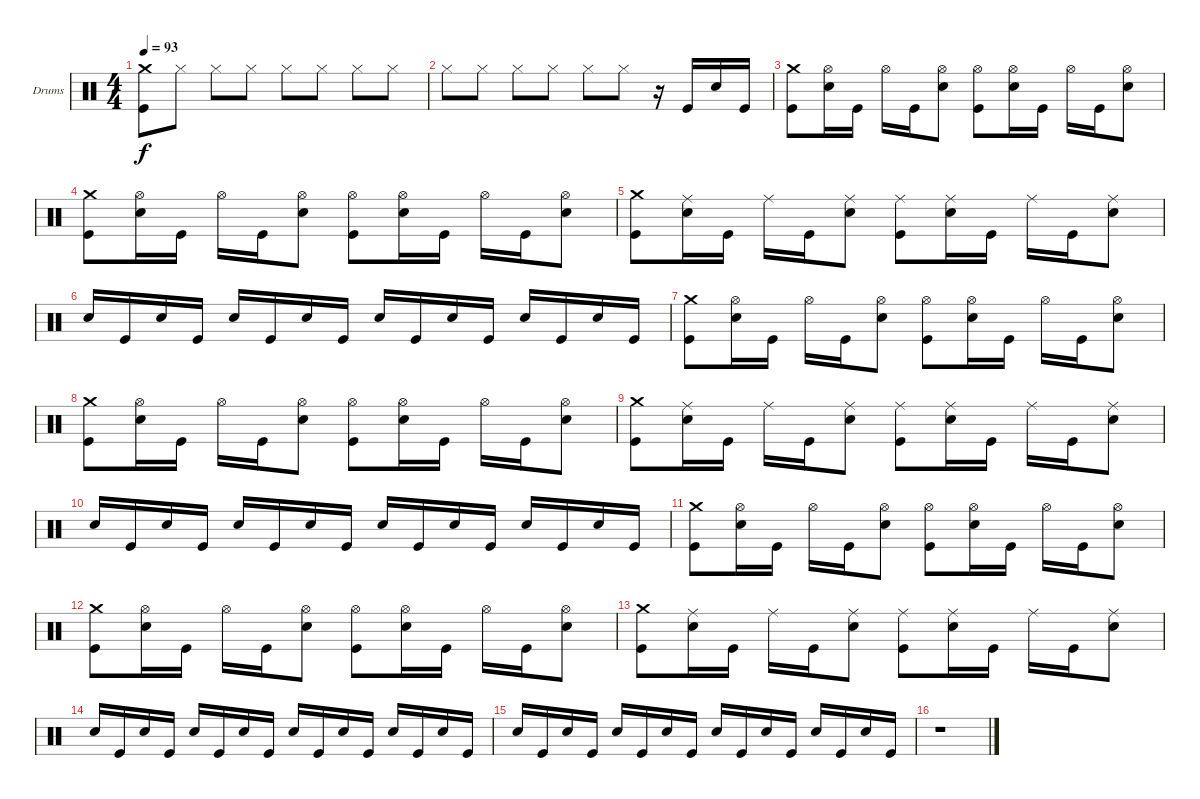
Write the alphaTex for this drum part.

\bracketExtendMode groupsimilarinstruments
\firstSystemTrackNameOrientation horizontal
\otherSystemsTrackNameOrientation horizontal
\track ("Drumkit" "Drums") {instrument percussion}
\staff {score}
\articulation defaults
\ts (4 4)
\tempo 93
\clef neutral
\ks c
("Crash medium (hit)" "Kick (hit)").8{dy f} "Hi-Hat (closed)".8 "Hi-Hat (closed)".8 "Hi-Hat (closed)".8 "Hi-Hat (closed)".8 "Hi-Hat (closed)".8 "Hi-Hat (closed)".8 "Hi-Hat (closed)".8 |
"Hi-Hat (closed)".8 "Hi-Hat (closed)".8 "Hi-Hat (closed)".8 "Hi-Hat (closed)".8 "Hi-Hat (closed)".8 "Hi-Hat (closed)".8 r.16 "Kick (hit)".16 "Snare (hit) 2".16 "Kick (hit)".16 |
("Kick (hit)" "Crash medium (hit)").8 ("Hi-Hat (open)" "Snare (hit) 2").16 "Kick (hit)".16 "Hi-Hat (open)".16 "Kick (hit)".16 ("Hi-Hat (open)" "Snare (hit) 2").8 ("Kick (hit)" "Hi-Hat (open)").8 ("Hi-Hat (open)" "Snare (hit) 2").16 "Kick (hit)".16 "Hi-Hat (open)".16 "Kick (hit)".16 ("Hi-Hat (open)" "Snare (hit) 2").8 |
("Kick (hit)" "Crash medium (hit)").8 ("Hi-Hat (open)" "Snare (hit) 2").16 "Kick (hit)".16 "Hi-Hat (open)".16 "Kick (hit)".16 ("Hi-Hat (open)" "Snare (hit) 2").8 ("Kick (hit)" "Hi-Hat (open)").8 ("Hi-Hat (open)" "Snare (hit) 2").16 "Kick (hit)".16 "Hi-Hat (open)".16 "Kick (hit)".16 ("Hi-Hat (open)" "Snare (hit) 2").8 |
("Kick (hit)" "Crash medium (hit)").8 ("Ride (middle)" "Snare (hit) 2").16 "Kick (hit)".16 "Ride (middle)".16 "Kick (hit)".16 ("Ride (middle)" "Snare (hit) 2").8 ("Kick (hit)" "Ride (middle)").8 ("Ride (middle)" "Snare (hit) 2").16 "Kick (hit)".16 "Ride (middle)".16 "Kick (hit)".16 ("Ride (middle)" "Snare (hit) 2").8 |
"Snare (hit) 2".16 "Kick (hit)".16 "Snare (hit) 2".16 "Kick (hit)".16 "Snare (hit) 2".16 "Kick (hit)".16 "Snare (hit) 2".16 "Kick (hit)".16 "Snare (hit) 2".16 "Kick (hit)".16 "Snare (hit) 2".16 "Kick (hit)".16 "Snare (hit) 2".16 "Kick (hit)".16 "Snare (hit) 2".16 "Kick (hit)".16 |
("Kick (hit)" "Crash medium (hit)").8 ("Hi-Hat (open)" "Snare (hit) 2").16 "Kick (hit)".16 "Hi-Hat (open)".16 "Kick (hit)".16 ("Hi-Hat (open)" "Snare (hit) 2").8 ("Kick (hit)" "Hi-Hat (open)").8 ("Hi-Hat (open)" "Snare (hit) 2").16 "Kick (hit)".16 "Hi-Hat (open)".16 "Kick (hit)".16 ("Hi-Hat (open)" "Snare (hit) 2").8 |
("Kick (hit)" "Crash medium (hit)").8 ("Hi-Hat (open)" "Snare (hit) 2").16 "Kick (hit)".16 "Hi-Hat (open)".16 "Kick (hit)".16 ("Hi-Hat (open)" "Snare (hit) 2").8 ("Kick (hit)" "Hi-Hat (open)").8 ("Hi-Hat (open)" "Snare (hit) 2").16 "Kick (hit)".16 "Hi-Hat (open)".16 "Kick (hit)".16 ("Hi-Hat (open)" "Snare (hit) 2").8 |
("Kick (hit)" "Crash medium (hit)").8 ("Ride (middle)" "Snare (hit) 2").16 "Kick (hit)".16 "Ride (middle)".16 "Kick (hit)".16 ("Ride (middle)" "Snare (hit) 2").8 ("Kick (hit)" "Ride (middle)").8 ("Ride (middle)" "Snare (hit) 2").16 "Kick (hit)".16 "Ride (middle)".16 "Kick (hit)".16 ("Ride (middle)" "Snare (hit) 2").8 |
"Snare (hit) 2".16 "Kick (hit)".16 "Snare (hit) 2".16 "Kick (hit)".16 "Snare (hit) 2".16 "Kick (hit)".16 "Snare (hit) 2".16 "Kick (hit)".16 "Snare (hit) 2".16 "Kick (hit)".16 "Snare (hit) 2".16 "Kick (hit)".16 "Snare (hit) 2".16 "Kick (hit)".16 "Snare (hit) 2".16 "Kick (hit)".16 |
("Kick (hit)" "Crash medium (hit)").8 ("Hi-Hat (open)" "Snare (hit) 2").16 "Kick (hit)".16 "Hi-Hat (open)".16 "Kick (hit)".16 ("Hi-Hat (open)" "Snare (hit) 2").8 ("Kick (hit)" "Hi-Hat (open)").8 ("Hi-Hat (open)" "Snare (hit) 2").16 "Kick (hit)".16 "Hi-Hat (open)".16 "Kick (hit)".16 ("Hi-Hat (open)" "Snare (hit) 2").8 |
("Kick (hit)" "Crash medium (hit)").8 ("Hi-Hat (open)" "Snare (hit) 2").16 "Kick (hit)".16 "Hi-Hat (open)".16 "Kick (hit)".16 ("Hi-Hat (open)" "Snare (hit) 2").8 ("Kick (hit)" "Hi-Hat (open)").8 ("Hi-Hat (open)" "Snare (hit) 2").16 "Kick (hit)".16 "Hi-Hat (open)".16 "Kick (hit)".16 ("Hi-Hat (open)" "Snare (hit) 2").8 |
("Kick (hit)" "Crash medium (hit)").8 ("Ride (middle)" "Snare (hit) 2").16 "Kick (hit)".16 "Ride (middle)".16 "Kick (hit)".16 ("Ride (middle)" "Snare (hit) 2").8 ("Kick (hit)" "Ride (middle)").8 ("Ride (middle)" "Snare (hit) 2").16 "Kick (hit)".16 "Ride (middle)".16 "Kick (hit)".16 ("Ride (middle)" "Snare (hit) 2").8 |
"Snare (hit) 2".16 "Kick (hit)".16 "Snare (hit) 2".16 "Kick (hit)".16 "Snare (hit) 2".16 "Kick (hit)".16 "Snare (hit) 2".16 "Kick (hit)".16 "Snare (hit) 2".16 "Kick (hit)".16 "Snare (hit) 2".16 "Kick (hit)".16 "Snare (hit) 2".16 "Kick (hit)".16 "Snare (hit) 2".16 "Kick (hit)".16 |
"Snare (hit) 2".16 "Kick (hit)".16 "Snare (hit) 2".16 "Kick (hit)".16 "Snare (hit) 2".16 "Kick (hit)".16 "Snare (hit) 2".16 "Kick (hit)".16 "Snare (hit) 2".16 "Kick (hit)".16 "Snare (hit) 2".16 "Kick (hit)".16 "Snare (hit) 2".16 "Kick (hit)".16 "Snare (hit) 2".16 "Kick (hit)".16 |
r.1
